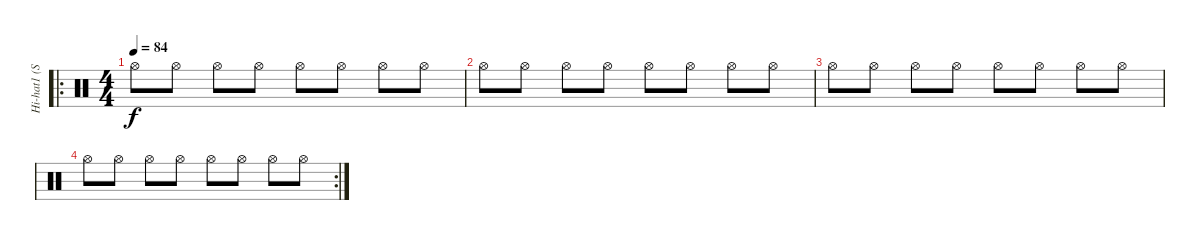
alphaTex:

\track ("Hi-hat1 (Silas)" "Hi-hat1 (S") {instrument percussion}
\staff {score}
\articulation defaults
\ro
\ts (4 4)
\tempo 84
\clef neutral
\ks c "Hi-Hat (open)".8{dy f} "Hi-Hat (open)".8 "Hi-Hat (open)".8 "Hi-Hat (open)".8 "Hi-Hat (open)".8 "Hi-Hat (open)".8 "Hi-Hat (open)".8 "Hi-Hat (open)".8
|
"Hi-Hat (open)".8 "Hi-Hat (open)".8 "Hi-Hat (open)".8 "Hi-Hat (open)".8 "Hi-Hat (open)".8 "Hi-Hat (open)".8 "Hi-Hat (open)".8 "Hi-Hat (open)".8 |
"Hi-Hat (open)".8 "Hi-Hat (open)".8 "Hi-Hat (open)".8 "Hi-Hat (open)".8 "Hi-Hat (open)".8 "Hi-Hat (open)".8 "Hi-Hat (open)".8 "Hi-Hat (open)".8 |
\rc 2 "Hi-Hat (open)".8 "Hi-Hat (open)".8 "Hi-Hat (open)".8 "Hi-Hat (open)".8 "Hi-Hat (open)".8 "Hi-Hat (open)".8 "Hi-Hat (open)".8 "Hi-Hat (open)".8
